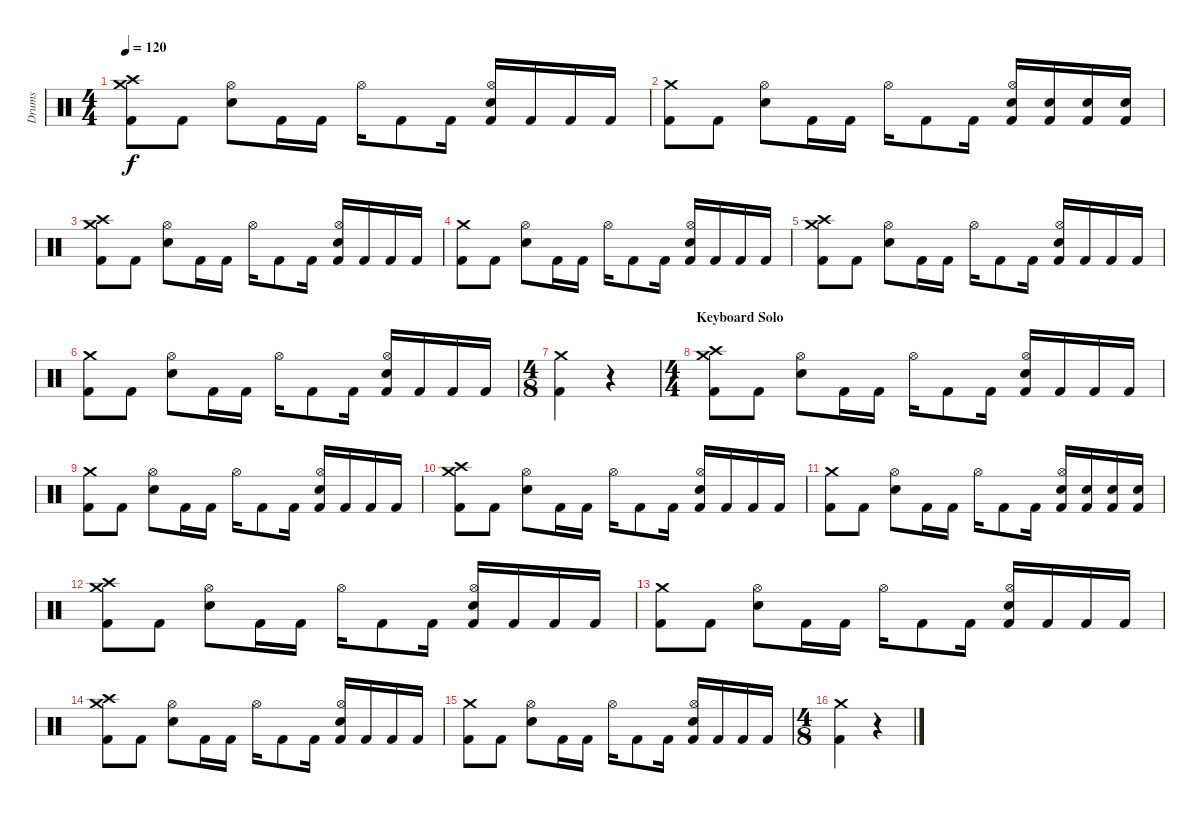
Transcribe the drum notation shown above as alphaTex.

\track ("Drums" "Drums") {instrument percussion}
\staff {score}
\articulation defaults
\ts (4 4)
\tempo 120
\clef neutral
\ks c
("Crash medium (hit)" "Crash high (hit)" "Kick (hit) 2").8{dy f} "Kick (hit) 2".8 ("Hi-Hat (open)" "Electric Snare (hit)").8 "Kick (hit) 2".16 "Kick (hit) 2".16 "Hi-Hat (open)".16 "Kick (hit) 2".8 "Kick (hit) 2".16 ("Hi-Hat (open)" "Electric Snare (hit)" "Kick (hit) 2").16 "Kick (hit) 2".16 "Kick (hit) 2".16 "Kick (hit) 2".16 |
("Crash medium (hit)" "Kick (hit) 2").8 "Kick (hit) 2".8 ("Hi-Hat (open)" "Electric Snare (hit)").8 "Kick (hit) 2".16 "Kick (hit) 2".16 "Hi-Hat (open)".16 "Kick (hit) 2".8 "Kick (hit) 2".16 ("Hi-Hat (open)" "Electric Snare (hit)" "Kick (hit) 2").16 ("Electric Snare (hit)" "Kick (hit) 2").16 ("Electric Snare (hit)" "Kick (hit) 2").16 ("Electric Snare (hit)" "Kick (hit) 2").16 |
("Crash medium (hit)" "Crash high (hit)" "Kick (hit) 2").8 "Kick (hit) 2".8 ("Hi-Hat (open)" "Electric Snare (hit)").8 "Kick (hit) 2".16 "Kick (hit) 2".16 "Hi-Hat (open)".16 "Kick (hit) 2".8 "Kick (hit) 2".16 ("Hi-Hat (open)" "Electric Snare (hit)" "Kick (hit) 2").16 "Kick (hit) 2".16 "Kick (hit) 2".16 "Kick (hit) 2".16 |
("Crash medium (hit)" "Kick (hit) 2").8 "Kick (hit) 2".8 ("Hi-Hat (open)" "Electric Snare (hit)").8 "Kick (hit) 2".16 "Kick (hit) 2".16 "Hi-Hat (open)".16 "Kick (hit) 2".8 "Kick (hit) 2".16 ("Hi-Hat (open)" "Electric Snare (hit)" "Kick (hit) 2").16 "Kick (hit) 2".16 "Kick (hit) 2".16 "Kick (hit) 2".16 |
("Crash medium (hit)" "Crash high (hit)" "Kick (hit) 2").8 "Kick (hit) 2".8 ("Hi-Hat (open)" "Electric Snare (hit)").8 "Kick (hit) 2".16 "Kick (hit) 2".16 "Hi-Hat (open)".16 "Kick (hit) 2".8 "Kick (hit) 2".16 ("Hi-Hat (open)" "Electric Snare (hit)" "Kick (hit) 2").16 "Kick (hit) 2".16 "Kick (hit) 2".16 "Kick (hit) 2".16 |
("Crash medium (hit)" "Kick (hit) 2").8 "Kick (hit) 2".8 ("Hi-Hat (open)" "Electric Snare (hit)").8 "Kick (hit) 2".16 "Kick (hit) 2".16 "Hi-Hat (open)".16 "Kick (hit) 2".8 "Kick (hit) 2".16 ("Hi-Hat (open)" "Electric Snare (hit)" "Kick (hit) 2").16 "Kick (hit) 2".16 "Kick (hit) 2".16 "Kick (hit) 2".16 |
\ts (4 8)
("Crash medium (hit)" "Kick (hit) 2").4{volume 0} r.4 |
\ts (4 4)
\section ("" "Keyboard Solo")
("Crash medium (hit)" "Crash high (hit)" "Kick (hit) 2").8{volume 12} "Kick (hit) 2".8 ("Hi-Hat (open)" "Electric Snare (hit)").8 "Kick (hit) 2".16 "Kick (hit) 2".16 "Hi-Hat (open)".16 "Kick (hit) 2".8 "Kick (hit) 2".16 ("Hi-Hat (open)" "Electric Snare (hit)" "Kick (hit) 2").16 "Kick (hit) 2".16 "Kick (hit) 2".16 "Kick (hit) 2".16 |
("Crash medium (hit)" "Kick (hit) 2").8 "Kick (hit) 2".8 ("Hi-Hat (open)" "Electric Snare (hit)").8 "Kick (hit) 2".16 "Kick (hit) 2".16 "Hi-Hat (open)".16 "Kick (hit) 2".8 "Kick (hit) 2".16 ("Hi-Hat (open)" "Electric Snare (hit)" "Kick (hit) 2").16 "Kick (hit) 2".16 "Kick (hit) 2".16 "Kick (hit) 2".16 |
("Crash medium (hit)" "Crash high (hit)" "Kick (hit) 2").8 "Kick (hit) 2".8 ("Hi-Hat (open)" "Electric Snare (hit)").8 "Kick (hit) 2".16 "Kick (hit) 2".16 "Hi-Hat (open)".16 "Kick (hit) 2".8 "Kick (hit) 2".16 ("Hi-Hat (open)" "Electric Snare (hit)" "Kick (hit) 2").16 "Kick (hit) 2".16 "Kick (hit) 2".16 "Kick (hit) 2".16 |
("Crash medium (hit)" "Kick (hit) 2").8 "Kick (hit) 2".8 ("Hi-Hat (open)" "Electric Snare (hit)").8 "Kick (hit) 2".16 "Kick (hit) 2".16 "Hi-Hat (open)".16 "Kick (hit) 2".8 "Kick (hit) 2".16 ("Hi-Hat (open)" "Electric Snare (hit)" "Kick (hit) 2").16 ("Electric Snare (hit)" "Kick (hit) 2").16 ("Electric Snare (hit)" "Kick (hit) 2").16 ("Electric Snare (hit)" "Kick (hit) 2").16 |
("Crash medium (hit)" "Crash high (hit)" "Kick (hit) 2").8 "Kick (hit) 2".8 ("Hi-Hat (open)" "Electric Snare (hit)").8 "Kick (hit) 2".16 "Kick (hit) 2".16 "Hi-Hat (open)".16 "Kick (hit) 2".8 "Kick (hit) 2".16 ("Hi-Hat (open)" "Electric Snare (hit)" "Kick (hit) 2").16 "Kick (hit) 2".16 "Kick (hit) 2".16 "Kick (hit) 2".16 |
("Crash medium (hit)" "Kick (hit) 2").8 "Kick (hit) 2".8 ("Hi-Hat (open)" "Electric Snare (hit)").8 "Kick (hit) 2".16 "Kick (hit) 2".16 "Hi-Hat (open)".16 "Kick (hit) 2".8 "Kick (hit) 2".16 ("Hi-Hat (open)" "Electric Snare (hit)" "Kick (hit) 2").16 "Kick (hit) 2".16 "Kick (hit) 2".16 "Kick (hit) 2".16 |
("Crash medium (hit)" "Crash high (hit)" "Kick (hit) 2").8 "Kick (hit) 2".8 ("Hi-Hat (open)" "Electric Snare (hit)").8 "Kick (hit) 2".16 "Kick (hit) 2".16 "Hi-Hat (open)".16 "Kick (hit) 2".8 "Kick (hit) 2".16 ("Hi-Hat (open)" "Electric Snare (hit)" "Kick (hit) 2").16 "Kick (hit) 2".16 "Kick (hit) 2".16 "Kick (hit) 2".16 |
("Crash medium (hit)" "Kick (hit) 2").8 "Kick (hit) 2".8 ("Hi-Hat (open)" "Electric Snare (hit)").8 "Kick (hit) 2".16 "Kick (hit) 2".16 "Hi-Hat (open)".16 "Kick (hit) 2".8 "Kick (hit) 2".16 ("Hi-Hat (open)" "Electric Snare (hit)" "Kick (hit) 2").16 "Kick (hit) 2".16 "Kick (hit) 2".16 "Kick (hit) 2".16 |
\ts (4 8)
("Crash medium (hit)" "Kick (hit) 2").4{volume 0} r.4
